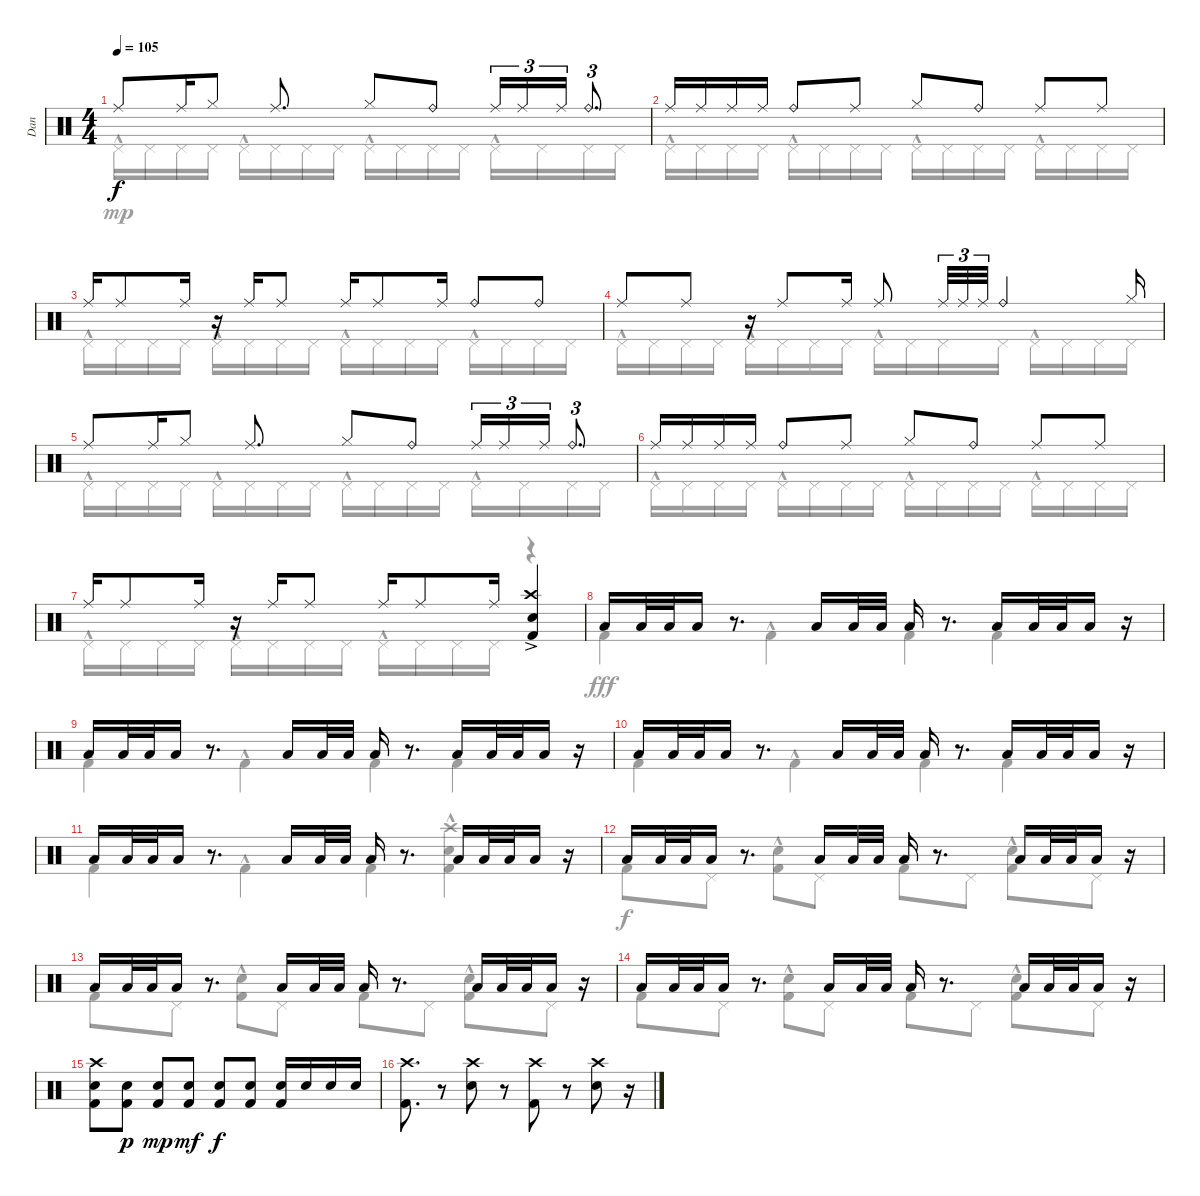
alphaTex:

\track ("Dan" "Dan") {instrument percussion}
\staff {score}
\articulation defaults
\voice
\ts (4 4)
\tempo 105
\clef neutral
\ks c "Ride (middle)".8{dy f} "Ride (middle)".16 "Hi-Hat (closed)".8 "Ride (middle)".8{d} "Hi-Hat (closed)".8 "Ride (bell)".8 "Ride (middle)".16{tu (3 2)} "Ride (middle)".16{tu (3 2)} "Ride (middle)".16{tu (3 2)} "Ride (bell)".8{d tu (3 2)}
|
"Ride (middle)".16 "Ride (middle)".16 "Ride (middle)".16 "Ride (middle)".16 "Ride (bell)".8 "Ride (middle)".8 "Hi-Hat (closed)".8 "Ride (bell)".8 "Ride (middle)".8 "Ride (middle)".8 |
"Ride (middle)".16 "Ride (middle)".8 "Ride (middle)".16 r.16 "Ride (middle)".16 "Ride (middle)".8 "Ride (middle)".16 "Ride (middle)".8 "Ride (middle)".16 "Ride (bell)".8 "Ride (bell)".8 |
"Ride (middle)".8 "Ride (middle)".8 r.16 "Ride (middle)".8 "Ride (middle)".16 "Ride (middle)".8 "Ride (middle)".32{tu (3 2)} "Ride (middle)".32{tu (3 2)} "Ride (middle)".32{tu (3 2)} "Ride (bell)".4 "Hi-Hat (closed)".16 |
"Ride (middle)".8 "Ride (middle)".16 "Hi-Hat (closed)".8 "Ride (middle)".8{d} "Hi-Hat (closed)".8 "Ride (bell)".8 "Ride (middle)".16{tu (3 2)} "Ride (middle)".16{tu (3 2)} "Ride (middle)".16{tu (3 2)} "Ride (bell)".8{d tu (3 2)} |
"Ride (middle)".16 "Ride (middle)".16 "Ride (middle)".16 "Ride (middle)".16 "Ride (bell)".8 "Ride (middle)".8 "Hi-Hat (closed)".8 "Ride (bell)".8 "Ride (middle)".8 "Ride (middle)".8 |
"Ride (middle)".16 "Ride (middle)".8 "Ride (middle)".16 r.16 "Ride (middle)".16 "Ride (middle)".8 "Ride (middle)".16 "Ride (middle)".8 "Ride (middle)".16 ("Crash high (hit)"{ac} "Kick (hit) 2"{ac} "Snare (hit) 2"{ac}).4 |
"Low Floor Tom (hit)".16 "Low Floor Tom (hit)".32 "Low Floor Tom (hit)".32 "Low Floor Tom (hit)".16 r.8{d} "Low Floor Tom (hit)".16 "Low Floor Tom (hit)".32 "Low Floor Tom (hit)".32 "Low Floor Tom (hit)".16 r.8{d} "Low Floor Tom (hit)".16 "Low Floor Tom (hit)".32 "Low Floor Tom (hit)".32 "Low Floor Tom (hit)".16 r.16 |
"Low Floor Tom (hit)".16 "Low Floor Tom (hit)".32 "Low Floor Tom (hit)".32 "Low Floor Tom (hit)".16 r.8{d} "Low Floor Tom (hit)".16 "Low Floor Tom (hit)".32 "Low Floor Tom (hit)".32 "Low Floor Tom (hit)".16 r.8{d} "Low Floor Tom (hit)".16 "Low Floor Tom (hit)".32 "Low Floor Tom (hit)".32 "Low Floor Tom (hit)".16 r.16 |
"Low Floor Tom (hit)".16 "Low Floor Tom (hit)".32 "Low Floor Tom (hit)".32 "Low Floor Tom (hit)".16 r.8{d} "Low Floor Tom (hit)".16 "Low Floor Tom (hit)".32 "Low Floor Tom (hit)".32 "Low Floor Tom (hit)".16 r.8{d} "Low Floor Tom (hit)".16 "Low Floor Tom (hit)".32 "Low Floor Tom (hit)".32 "Low Floor Tom (hit)".16 r.16 |
"Low Floor Tom (hit)".16 "Low Floor Tom (hit)".32 "Low Floor Tom (hit)".32 "Low Floor Tom (hit)".16 r.8{d} "Low Floor Tom (hit)".16 "Low Floor Tom (hit)".32 "Low Floor Tom (hit)".32 "Low Floor Tom (hit)".16 r.8{d} "Low Floor Tom (hit)".16 "Low Floor Tom (hit)".32 "Low Floor Tom (hit)".32 "Low Floor Tom (hit)".16 r.16 |
"Low Floor Tom (hit)".16 "Low Floor Tom (hit)".32 "Low Floor Tom (hit)".32 "Low Floor Tom (hit)".16 r.8{d} "Low Floor Tom (hit)".16 "Low Floor Tom (hit)".32 "Low Floor Tom (hit)".32 "Low Floor Tom (hit)".16 r.8{d} "Low Floor Tom (hit)".16 "Low Floor Tom (hit)".32 "Low Floor Tom (hit)".32 "Low Floor Tom (hit)".16 r.16 |
"Low Floor Tom (hit)".16 "Low Floor Tom (hit)".32 "Low Floor Tom (hit)".32 "Low Floor Tom (hit)".16 r.8{d} "Low Floor Tom (hit)".16 "Low Floor Tom (hit)".32 "Low Floor Tom (hit)".32 "Low Floor Tom (hit)".16 r.8{d} "Low Floor Tom (hit)".16 "Low Floor Tom (hit)".32 "Low Floor Tom (hit)".32 "Low Floor Tom (hit)".16 r.16 |
"Low Floor Tom (hit)".16 "Low Floor Tom (hit)".32 "Low Floor Tom (hit)".32 "Low Floor Tom (hit)".16 r.8{d} "Low Floor Tom (hit)".16 "Low Floor Tom (hit)".32 "Low Floor Tom (hit)".32 "Low Floor Tom (hit)".16 r.8{d} "Low Floor Tom (hit)".16 "Low Floor Tom (hit)".32 "Low Floor Tom (hit)".32 "Low Floor Tom (hit)".16 r.16 |
("Crash high (hit)" "Snare (hit) 2" "Kick (hit) 2").8 ("Snare (hit) 2" "Kick (hit) 2").8{dy p} ("Snare (hit) 2" "Kick (hit) 2").8{dy mp} ("Snare (hit) 2" "Kick (hit) 2").8{dy mf} ("Snare (hit) 2" "Kick (hit) 2").8{dy f} ("Snare (hit) 2" "Kick (hit) 2").8 ("Snare (hit) 2" "Kick (hit) 2").16 "Snare (hit) 2".16 "Snare (hit) 2".16 "Snare (hit) 2".16 |
("Crash high (hit)" "Kick (hit) 2").8{d} r.8 ("Crash high (hit)" "Snare (hit) 2").8 r.8 ("Crash high (hit)" "Kick (hit) 2").8 r.8 ("Crash high (hit)" "Snare (hit) 2").8 r.16
\voice
\clef neutral
\ottava regular
\simile none
\ks c "Pedal Hi-Hat (hit)"{hac}.16{dy mp} "Pedal Hi-Hat (hit)".16 "Pedal Hi-Hat (hit)".16 "Pedal Hi-Hat (hit)".16 "Pedal Hi-Hat (hit)"{hac}.16 "Pedal Hi-Hat (hit)".16 "Pedal Hi-Hat (hit)".16 "Pedal Hi-Hat (hit)".16 "Pedal Hi-Hat (hit)"{hac}.16 "Pedal Hi-Hat (hit)".16 "Pedal Hi-Hat (hit)".16 "Pedal Hi-Hat (hit)".16 "Pedal Hi-Hat (hit)"{hac}.16 "Pedal Hi-Hat (hit)".16 "Pedal Hi-Hat (hit)".16 "Pedal Hi-Hat (hit)".16
|
"Pedal Hi-Hat (hit)"{hac}.16 "Pedal Hi-Hat (hit)".16 "Pedal Hi-Hat (hit)".16 "Pedal Hi-Hat (hit)".16 "Pedal Hi-Hat (hit)"{hac}.16 "Pedal Hi-Hat (hit)".16 "Pedal Hi-Hat (hit)".16 "Pedal Hi-Hat (hit)".16 "Pedal Hi-Hat (hit)"{hac}.16 "Pedal Hi-Hat (hit)".16 "Pedal Hi-Hat (hit)".16 "Pedal Hi-Hat (hit)".16 "Pedal Hi-Hat (hit)"{hac}.16 "Pedal Hi-Hat (hit)".16 "Pedal Hi-Hat (hit)".16 "Pedal Hi-Hat (hit)".16 |
"Pedal Hi-Hat (hit)"{hac}.16 "Pedal Hi-Hat (hit)".16 "Pedal Hi-Hat (hit)".16 "Pedal Hi-Hat (hit)".16 "Pedal Hi-Hat (hit)"{hac}.16 "Pedal Hi-Hat (hit)".16 "Pedal Hi-Hat (hit)".16 "Pedal Hi-Hat (hit)".16 "Pedal Hi-Hat (hit)"{hac}.16 "Pedal Hi-Hat (hit)".16 "Pedal Hi-Hat (hit)".16 "Pedal Hi-Hat (hit)".16 "Pedal Hi-Hat (hit)"{hac}.16 "Pedal Hi-Hat (hit)".16 "Pedal Hi-Hat (hit)".16 "Pedal Hi-Hat (hit)".16 |
"Pedal Hi-Hat (hit)"{hac}.16 "Pedal Hi-Hat (hit)".16 "Pedal Hi-Hat (hit)".16 "Pedal Hi-Hat (hit)".16 "Pedal Hi-Hat (hit)"{hac}.16 "Pedal Hi-Hat (hit)".16 "Pedal Hi-Hat (hit)".16 "Pedal Hi-Hat (hit)".16 "Pedal Hi-Hat (hit)"{hac}.16 "Pedal Hi-Hat (hit)".16 "Pedal Hi-Hat (hit)".16 "Pedal Hi-Hat (hit)".16 "Pedal Hi-Hat (hit)"{hac}.16 "Pedal Hi-Hat (hit)".16 "Pedal Hi-Hat (hit)".16 "Pedal Hi-Hat (hit)".16 |
"Pedal Hi-Hat (hit)"{hac}.16 "Pedal Hi-Hat (hit)".16 "Pedal Hi-Hat (hit)".16 "Pedal Hi-Hat (hit)".16 "Pedal Hi-Hat (hit)"{hac}.16 "Pedal Hi-Hat (hit)".16 "Pedal Hi-Hat (hit)".16 "Pedal Hi-Hat (hit)".16 "Pedal Hi-Hat (hit)"{hac}.16 "Pedal Hi-Hat (hit)".16 "Pedal Hi-Hat (hit)".16 "Pedal Hi-Hat (hit)".16 "Pedal Hi-Hat (hit)"{hac}.16 "Pedal Hi-Hat (hit)".16 "Pedal Hi-Hat (hit)".16 "Pedal Hi-Hat (hit)".16 |
"Pedal Hi-Hat (hit)"{hac}.16 "Pedal Hi-Hat (hit)".16 "Pedal Hi-Hat (hit)".16 "Pedal Hi-Hat (hit)".16 "Pedal Hi-Hat (hit)"{hac}.16 "Pedal Hi-Hat (hit)".16 "Pedal Hi-Hat (hit)".16 "Pedal Hi-Hat (hit)".16 "Pedal Hi-Hat (hit)"{hac}.16 "Pedal Hi-Hat (hit)".16 "Pedal Hi-Hat (hit)".16 "Pedal Hi-Hat (hit)".16 "Pedal Hi-Hat (hit)"{hac}.16 "Pedal Hi-Hat (hit)".16 "Pedal Hi-Hat (hit)".16 "Pedal Hi-Hat (hit)".16 |
"Pedal Hi-Hat (hit)"{hac}.16 "Pedal Hi-Hat (hit)".16 "Pedal Hi-Hat (hit)".16 "Pedal Hi-Hat (hit)".16 "Pedal Hi-Hat (hit)"{hac}.16 "Pedal Hi-Hat (hit)".16 "Pedal Hi-Hat (hit)".16 "Pedal Hi-Hat (hit)".16 "Pedal Hi-Hat (hit)"{hac}.16 "Pedal Hi-Hat (hit)".16 "Pedal Hi-Hat (hit)".16 "Pedal Hi-Hat (hit)".16 r.4 |
"Kick (hit) 2"{hac}.4{dy fff} "Kick (hit) 2"{hac}.4 "Kick (hit) 2"{hac}.4 "Kick (hit) 2"{hac}.4 |
"Kick (hit) 2"{hac}.4 "Kick (hit) 2"{hac}.4 "Kick (hit) 2"{hac}.4 "Kick (hit) 2"{hac}.4 |
"Kick (hit) 2"{hac}.4 "Kick (hit) 2"{hac}.4 "Kick (hit) 2"{hac}.4 "Kick (hit) 2"{hac}.4 |
"Kick (hit) 2"{hac}.4 "Kick (hit) 2"{hac}.4 "Kick (hit) 2"{hac}.4 ("Crash high (hit)" "Snare (hit) 2" "Kick (hit) 2"{hac}).4 |
"Kick (hit) 2"{hac}.8{dy f} "Pedal Hi-Hat (hit)".8 ("Snare (hit) 2" "Kick (hit) 2"{hac}).8 "Pedal Hi-Hat (hit)".8 "Kick (hit) 2"{hac}.8 "Pedal Hi-Hat (hit)".8 ("Snare (hit) 2" "Kick (hit) 2"{hac}).8 "Pedal Hi-Hat (hit)".8 |
"Kick (hit) 2"{hac}.8 "Pedal Hi-Hat (hit)".8 ("Snare (hit) 2" "Kick (hit) 2"{hac}).8 "Pedal Hi-Hat (hit)".8 "Kick (hit) 2"{hac}.8 "Pedal Hi-Hat (hit)".8 ("Snare (hit) 2" "Kick (hit) 2"{hac}).8 "Pedal Hi-Hat (hit)".8 |
"Kick (hit) 2"{hac}.8 "Pedal Hi-Hat (hit)".8 ("Snare (hit) 2" "Kick (hit) 2"{hac}).8 "Pedal Hi-Hat (hit)".8 "Kick (hit) 2"{hac}.8 "Pedal Hi-Hat (hit)".8 ("Snare (hit) 2" "Kick (hit) 2"{hac}).8 "Pedal Hi-Hat (hit)".8 |
|
